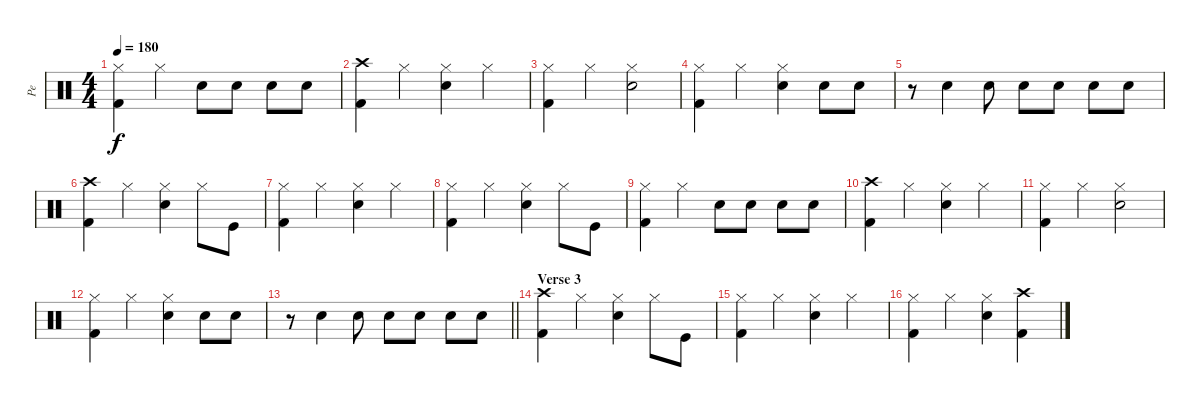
\track ("Pe" "Pe") {instrument percussion}
\staff {score}
\articulation defaults
\ts (4 4)
\tempo 180
\clef neutral
\ks c
("Kick (hit) 2" "Hi-Hat (closed)").4{dy f} "Hi-Hat (closed)".4 "Electric Snare (hit)".8 "Electric Snare (hit)".8 "Electric Snare (hit)".8 "Electric Snare (hit)".8 |
("Kick (hit) 2" "Crash high (hit)").4 "Hi-Hat (closed)".4 ("Electric Snare (hit)" "Hi-Hat (closed)").4 "Hi-Hat (closed)".4 |
("Kick (hit) 2" "Hi-Hat (closed)").4 "Hi-Hat (closed)".4 ("Electric Snare (hit)" "Hi-Hat (closed)").2 |
("Kick (hit) 2" "Hi-Hat (closed)").4 "Hi-Hat (closed)".4 ("Electric Snare (hit)" "Hi-Hat (closed)").4 "Electric Snare (hit)".8 "Electric Snare (hit)".8 |
r.8 "Electric Snare (hit)".4 "Electric Snare (hit)".8 "Electric Snare (hit)".8 "Electric Snare (hit)".8 "Electric Snare (hit)".8 "Electric Snare (hit)".8 |
("Kick (hit) 2" "Crash high (hit)").4 "Hi-Hat (closed)".4 ("Electric Snare (hit)" "Hi-Hat (closed)").4 "Hi-Hat (closed)".8 "Kick (hit)".8 |
("Kick (hit) 2" "Hi-Hat (closed)").4 "Hi-Hat (closed)".4 ("Electric Snare (hit)" "Hi-Hat (closed)").4 "Hi-Hat (closed)".4 |
("Kick (hit) 2" "Hi-Hat (closed)").4 "Hi-Hat (closed)".4 ("Electric Snare (hit)" "Hi-Hat (closed)").4 "Hi-Hat (closed)".8 "Kick (hit)".8 |
("Kick (hit) 2" "Hi-Hat (closed)").4 "Hi-Hat (closed)".4 "Electric Snare (hit)".8 "Electric Snare (hit)".8 "Electric Snare (hit)".8 "Electric Snare (hit)".8 |
("Kick (hit) 2" "Crash high (hit)").4 "Hi-Hat (closed)".4 ("Electric Snare (hit)" "Hi-Hat (closed)").4 "Hi-Hat (closed)".4 |
("Kick (hit) 2" "Hi-Hat (closed)").4 "Hi-Hat (closed)".4 ("Electric Snare (hit)" "Hi-Hat (closed)").2 |
("Kick (hit) 2" "Hi-Hat (closed)").4 "Hi-Hat (closed)".4 ("Electric Snare (hit)" "Hi-Hat (closed)").4 "Electric Snare (hit)".8 "Electric Snare (hit)".8 |
\barLineRight lightlight
r.8 "Electric Snare (hit)".4 "Electric Snare (hit)".8 "Electric Snare (hit)".8 "Electric Snare (hit)".8 "Electric Snare (hit)".8 "Electric Snare (hit)".8 |
\section ("" "Verse 3")
("Kick (hit) 2" "Crash high (hit)").4 "Hi-Hat (closed)".4 ("Electric Snare (hit)" "Hi-Hat (closed)").4 "Hi-Hat (closed)".8 "Kick (hit)".8 |
("Kick (hit) 2" "Hi-Hat (closed)").4 "Hi-Hat (closed)".4 ("Electric Snare (hit)" "Hi-Hat (closed)").4 "Hi-Hat (closed)".4 |
("Kick (hit) 2" "Hi-Hat (closed)").4 "Hi-Hat (closed)".4 ("Electric Snare (hit)" "Hi-Hat (closed)").4 ("Kick (hit) 2" "Crash high (hit)").4
